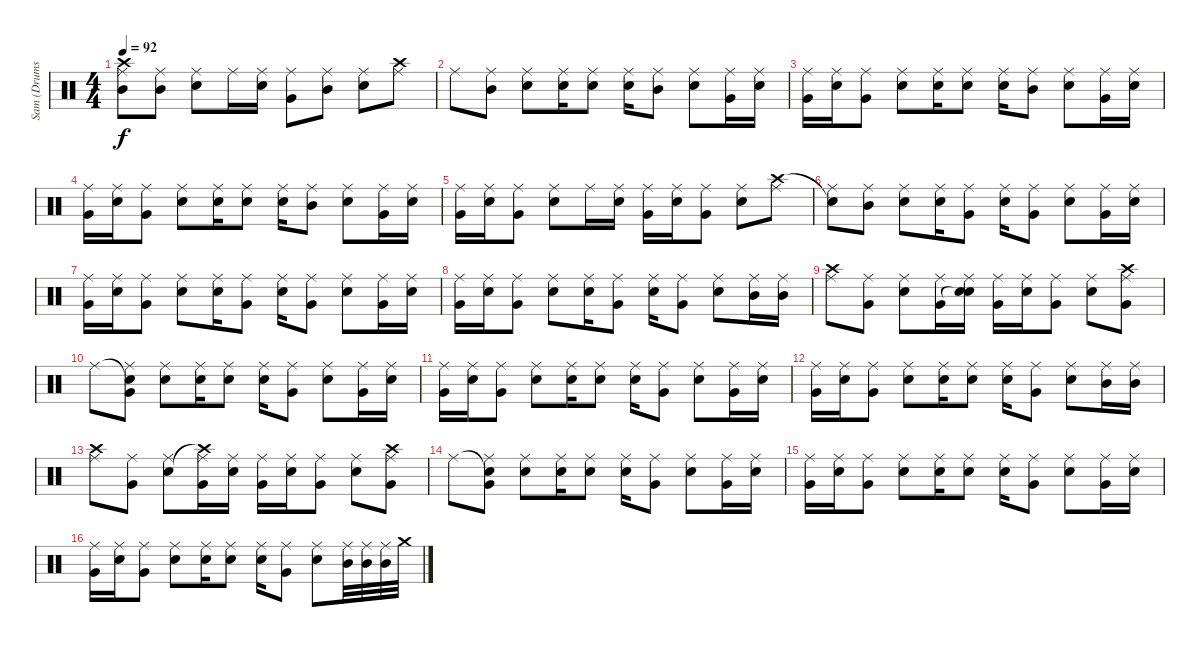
\track ("Sam (Drums)" "Sam (Drums") {instrument percussion}
\staff {score}
\articulation defaults
\ts (4 4)
\tempo 92
\clef neutral
\ks c
("Crash high (hit)" "Mid Tom (hit)" "Ride (middle)").8{dy f} ("Mid Tom (hit)" "Ride (middle)").8 ("Electric Snare (hit)" "Ride (middle)").8 "Ride (middle)".16 ("Electric Snare (hit)" "Ride (middle)").16 ("Very Low Tom (hit)" "Ride (middle)").8 ("Mid Tom (hit)" "Ride (middle)").8 ("Electric Snare (hit)" "Ride (middle)").8 ("Crash high (hit)" "Ride (middle)").8 |
"Ride (middle)".8 ("Mid Tom (hit)" "Ride (middle)").8 ("Electric Snare (hit)" "Ride (middle)").8 ("Electric Snare (hit)" "Ride (middle)").16 ("Electric Snare (hit)" "Ride (middle)").8 ("Electric Snare (hit)" "Ride (middle)").16 ("Mid Tom (hit)" "Ride (middle)").8 ("Electric Snare (hit)" "Ride (middle)").8 ("Very Low Tom (hit)" "Ride (middle)").16 ("Electric Snare (hit)" "Ride (middle)").16 |
("Very Low Tom (hit)" "Ride (middle)").16 ("Electric Snare (hit)" "Ride (middle)").16 ("Very Low Tom (hit)" "Ride (middle)").8 ("Electric Snare (hit)" "Ride (middle)").8 ("Electric Snare (hit)" "Ride (middle)").16 ("Electric Snare (hit)" "Ride (middle)").8 ("Electric Snare (hit)" "Ride (middle)").16 ("Mid Tom (hit)" "Ride (middle)").8 ("Electric Snare (hit)" "Ride (middle)").8 ("Very Low Tom (hit)" "Ride (middle)").16 ("Electric Snare (hit)" "Ride (middle)").16 |
("Very Low Tom (hit)" "Ride (middle)").16 ("Electric Snare (hit)" "Ride (middle)").16 ("Very Low Tom (hit)" "Ride (middle)").8 ("Electric Snare (hit)" "Ride (middle)").8 ("Electric Snare (hit)" "Ride (middle)").16 ("Electric Snare (hit)" "Ride (middle)").8 ("Electric Snare (hit)" "Ride (middle)").16 ("Mid Tom (hit)" "Ride (middle)").8 ("Electric Snare (hit)" "Ride (middle)").8 ("Very Low Tom (hit)" "Ride (middle)").16 ("Electric Snare (hit)" "Ride (middle)").16 |
("Very Low Tom (hit)" "Ride (middle)").16 ("Electric Snare (hit)" "Ride (middle)").16 ("Very Low Tom (hit)" "Ride (middle)").8 ("Electric Snare (hit)" "Ride (middle)").8 "Ride (middle)".16 ("Electric Snare (hit)" "Ride (middle)").16 ("Very Low Tom (hit)" "Ride (middle)").16 ("Electric Snare (hit)" "Ride (middle)").16 ("Very Low Tom (hit)" "Ride (middle)").8 ("Electric Snare (hit)" "Ride (middle)").8 ("Crash high (hit)" "Ride (middle)").8 |
("Snare (hit)"{t} "Ride (middle)").8 ("Mid Tom (hit)" "Ride (middle)").8 ("Electric Snare (hit)" "Ride (middle)").8 ("Electric Snare (hit)" "Ride (middle)").16 ("Very Low Tom (hit)" "Ride (middle)").8 ("Electric Snare (hit)" "Ride (middle)").16 ("Very Low Tom (hit)" "Ride (middle)").8 ("Electric Snare (hit)" "Ride (middle)").8 ("Very Low Tom (hit)" "Ride (middle)").16 ("Electric Snare (hit)" "Ride (middle)").16 |
("Very Low Tom (hit)" "Ride (middle)").16 ("Electric Snare (hit)" "Ride (middle)").16 ("Very Low Tom (hit)" "Ride (middle)").8 ("Electric Snare (hit)" "Ride (middle)").8 ("Electric Snare (hit)" "Ride (middle)").16 ("Very Low Tom (hit)" "Ride (middle)").8 ("Electric Snare (hit)" "Ride (middle)").16 ("Very Low Tom (hit)" "Ride (middle)").8 ("Electric Snare (hit)" "Ride (middle)").8 ("Very Low Tom (hit)" "Ride (middle)").16 ("Electric Snare (hit)" "Ride (middle)").16 |
("Very Low Tom (hit)" "Ride (middle)").16 ("Electric Snare (hit)" "Ride (middle)").16 ("Very Low Tom (hit)" "Ride (middle)").8 ("Electric Snare (hit)" "Ride (middle)").8 ("Electric Snare (hit)" "Ride (middle)").16 ("Very Low Tom (hit)" "Ride (middle)").8 ("Electric Snare (hit)" "Ride (middle)").16 ("Very Low Tom (hit)" "Ride (middle)").8 ("Electric Snare (hit)" "Ride (middle)").8 ("Mid Tom (hit)" "Ride (middle)").16 ("Mid Tom (hit)" "Ride (middle)").16 |
("Crash high (hit)" "Ride (middle)").8 ("Very Low Tom (hit)" "Ride (middle)").8 ("Electric Snare (hit)" "Ride (middle)").8 ("Very Low Tom (hit)" "Ride (middle)").16 ("Snare (hit)"{t} "Electric Snare (hit)" "Ride (middle)").16 ("Very Low Tom (hit)" "Ride (middle)").16 ("Electric Snare (hit)" "Ride (middle)").16 ("Very Low Tom (hit)" "Ride (middle)").8 ("Electric Snare (hit)" "Ride (middle)").8 ("Crash high (hit)" "Very Low Tom (hit)" "Ride (middle)").8 |
"Ride (middle)".8 ("Snare (hit)"{t} "Very Low Tom (hit)" "Ride (middle)").8 ("Electric Snare (hit)" "Ride (middle)").8 ("Electric Snare (hit)" "Ride (middle)").16 ("Electric Snare (hit)" "Ride (middle)").8 ("Electric Snare (hit)" "Ride (middle)").16 ("Very Low Tom (hit)" "Ride (middle)").8 ("Electric Snare (hit)" "Ride (middle)").8 ("Very Low Tom (hit)" "Ride (middle)").16 ("Electric Snare (hit)" "Ride (middle)").16 |
("Very Low Tom (hit)" "Ride (middle)").16 ("Electric Snare (hit)" "Ride (middle)").16 ("Very Low Tom (hit)" "Ride (middle)").8 ("Electric Snare (hit)" "Ride (middle)").8 ("Electric Snare (hit)" "Ride (middle)").16 ("Electric Snare (hit)" "Ride (middle)").8 ("Electric Snare (hit)" "Ride (middle)").16 ("Very Low Tom (hit)" "Ride (middle)").8 ("Electric Snare (hit)" "Ride (middle)").8 ("Very Low Tom (hit)" "Ride (middle)").16 ("Electric Snare (hit)" "Ride (middle)").16 |
("Very Low Tom (hit)" "Ride (middle)").16 ("Electric Snare (hit)" "Ride (middle)").16 ("Very Low Tom (hit)" "Ride (middle)").8 ("Electric Snare (hit)" "Ride (middle)").8 ("Electric Snare (hit)" "Ride (middle)").16 ("Electric Snare (hit)" "Ride (middle)").8 ("Electric Snare (hit)" "Ride (middle)").16 ("Very Low Tom (hit)" "Ride (middle)").8 ("Electric Snare (hit)" "Ride (middle)").8 ("Mid Tom (hit)" "Ride (middle)").16 ("Mid Tom (hit)" "Ride (middle)").16 |
("Crash high (hit)" "Ride (middle)").8 ("Very Low Tom (hit)" "Ride (middle)").8 ("Electric Snare (hit)" "Ride (middle)").8 ("Crash high (hit)"{t} "Very Low Tom (hit)" "Ride (middle)").16 ("Electric Snare (hit)" "Ride (middle)").16 ("Very Low Tom (hit)" "Ride (middle)").16 ("Electric Snare (hit)" "Ride (middle)").16 ("Very Low Tom (hit)" "Ride (middle)").8 ("Electric Snare (hit)" "Ride (middle)").8 ("Crash high (hit)" "Very Low Tom (hit)" "Ride (middle)").8 |
"Ride (middle)".8 ("Snare (hit)"{t} "Very Low Tom (hit)" "Ride (middle)").8 ("Electric Snare (hit)" "Ride (middle)").8 ("Electric Snare (hit)" "Ride (middle)").16 ("Electric Snare (hit)" "Ride (middle)").8 ("Electric Snare (hit)" "Ride (middle)").16 ("Very Low Tom (hit)" "Ride (middle)").8 ("Electric Snare (hit)" "Ride (middle)").8 ("Very Low Tom (hit)" "Ride (middle)").16 ("Electric Snare (hit)" "Ride (middle)").16 |
("Very Low Tom (hit)" "Ride (middle)").16 ("Electric Snare (hit)" "Ride (middle)").16 ("Very Low Tom (hit)" "Ride (middle)").8 ("Electric Snare (hit)" "Ride (middle)").8 ("Electric Snare (hit)" "Ride (middle)").16 ("Electric Snare (hit)" "Ride (middle)").8 ("Electric Snare (hit)" "Ride (middle)").16 ("Very Low Tom (hit)" "Ride (middle)").8 ("Electric Snare (hit)" "Ride (middle)").8 ("Very Low Tom (hit)" "Ride (middle)").16 ("Electric Snare (hit)" "Ride (middle)").16 |
("Very Low Tom (hit)" "Ride (middle)").16 ("Electric Snare (hit)" "Ride (middle)").16 ("Very Low Tom (hit)" "Ride (middle)").8 ("Electric Snare (hit)" "Ride (middle)").8 ("Electric Snare (hit)" "Ride (middle)").16 ("Electric Snare (hit)" "Ride (middle)").8 ("Electric Snare (hit)" "Ride (middle)").16 ("Very Low Tom (hit)" "Ride (middle)").8 ("Electric Snare (hit)" "Ride (middle)").8 ("Mid Tom (hit)" "Ride (middle)").32 ("Mid Tom (hit)" "Ride (middle)").32 ("Mid Tom (hit)" "Ride (middle)").32 "Crash medium (hit)".32
